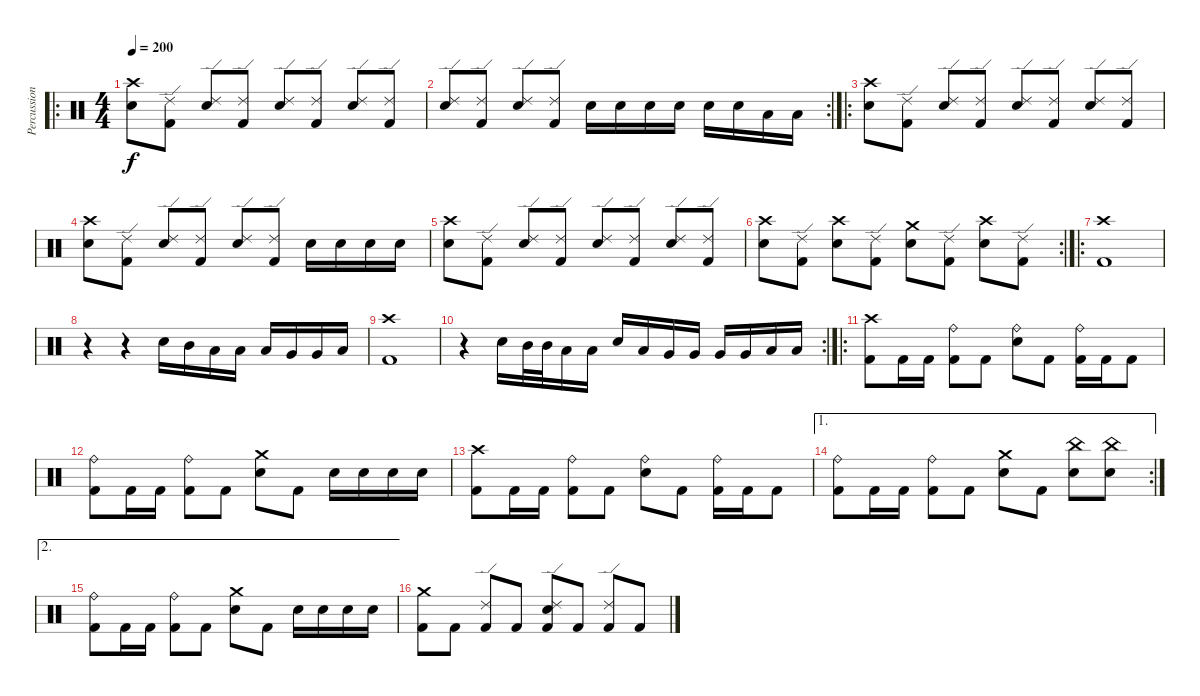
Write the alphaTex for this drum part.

\track ("Percussions" "Percussion") {instrument percussion}
\staff {score}
\articulation defaults
\ro
\ts (4 4)
\tempo 200
\clef neutral
\ks c
("Crash high (hit)" "Snare (hit) 2").8{dy f} ("Ride (edge) 2" "Kick (hit) 2").8 ("Ride (edge) 2" "Snare (hit) 2").8 ("Ride (edge) 2" "Kick (hit) 2").8 ("Ride (edge) 2" "Snare (hit) 2").8 ("Ride (edge) 2" "Kick (hit) 2").8 ("Ride (edge) 2" "Snare (hit) 2").8 ("Ride (edge) 2" "Kick (hit) 2").8 |
\rc 2
("Ride (edge) 2" "Snare (hit) 2").8 ("Ride (edge) 2" "Kick (hit) 2").8 ("Ride (edge) 2" "Snare (hit) 2").8 ("Ride (edge) 2" "Kick (hit) 2").8 "Snare (hit) 2".16 "Snare (hit) 2".16 "Snare (hit) 2".16 "Snare (hit) 2".16 "Snare (hit) 2".16 "Snare (hit) 2".16 "Low Tom (hit)".16 "Low Floor Tom (hit)".16 |
\ro
("Crash high (hit)" "Snare (hit) 2").8 ("Ride (edge) 2" "Kick (hit) 2").8 ("Ride (edge) 2" "Snare (hit) 2").8 ("Ride (edge) 2" "Kick (hit) 2").8 ("Ride (edge) 2" "Snare (hit) 2").8 ("Ride (edge) 2" "Kick (hit) 2").8 ("Ride (edge) 2" "Snare (hit) 2").8 ("Ride (edge) 2" "Kick (hit) 2").8 |
("Crash high (hit)" "Snare (hit) 2").8 ("Ride (edge) 2" "Kick (hit) 2").8 ("Ride (edge) 2" "Snare (hit) 2").8 ("Ride (edge) 2" "Kick (hit) 2").8 ("Ride (edge) 2" "Snare (hit) 2").8 ("Ride (edge) 2" "Kick (hit) 2").8 "Snare (hit) 2".16 "Snare (hit) 2".16 "Snare (hit) 2".16 "Snare (hit) 2".16 |
("Crash high (hit)" "Snare (hit) 2").8 ("Ride (edge) 2" "Kick (hit) 2").8 ("Ride (edge) 2" "Snare (hit) 2").8 ("Ride (edge) 2" "Kick (hit) 2").8 ("Ride (edge) 2" "Snare (hit) 2").8 ("Ride (edge) 2" "Kick (hit) 2").8 ("Ride (edge) 2" "Snare (hit) 2").8 ("Ride (edge) 2" "Kick (hit) 2").8 |
\rc 2
("Crash high (hit)" "Snare (hit) 2").8 ("Ride (edge) 2" "Kick (hit) 2").8 ("Crash high (hit)" "Snare (hit) 2").8 ("Ride (edge) 2" "Kick (hit) 2").8 ("Crash medium (hit)" "Snare (hit) 2").8 ("Ride (edge) 2" "Kick (hit) 2").8 ("Crash high (hit)" "Snare (hit) 2").8 ("Ride (edge) 2" "Kick (hit) 2").8 |
\ro
("Crash high (hit)" "Kick (hit) 2").1 |
r.4 r.4 "Snare (hit) 2".16 "Mid Tom (hit)".16 "Low Tom (hit)".16 "Low Tom (hit)".16 "Low Tom (hit)".16 "Very Low Tom (hit)".16 "Very Low Tom (hit)".16 "Low Floor Tom (hit)".16 |
("Crash high (hit)" "Kick (hit) 2").1 |
\rc 2
r.4 "Snare (hit) 2".16 "Mid Tom (hit)".32 "Mid Tom (hit)".32 "Low Tom (hit)".16 "Low Tom (hit)".16 "Snare (hit) 2".16 "Low Tom (hit)".16 "Very Low Tom (hit)".16 "Very Low Tom (hit)".16 "Very Low Tom (hit)".16 "Very Low Tom (hit)".16 "Low Floor Tom (hit)".16 "Low Floor Tom (hit)".16 |
\ro
("Crash high (hit)" "Kick (hit) 2").8 "Kick (hit) 2".16 "Kick (hit) 2".16 ("Ride (bell)" "Kick (hit) 2").8 "Kick (hit) 2".8 ("Ride (bell)" "Snare (hit) 2").8 "Kick (hit) 2".8 ("Ride (bell)" "Kick (hit) 2").16 "Kick (hit) 2".16 "Kick (hit) 2".8 |
("Ride (bell)" "Kick (hit) 2").8 "Kick (hit) 2".16 "Kick (hit) 2".16 ("Ride (bell)" "Kick (hit) 2").8 "Kick (hit) 2".8 ("Crash medium (hit)" "Snare (hit) 2").8 "Kick (hit) 2".8 "Snare (hit) 2".16 "Snare (hit) 2".16 "Snare (hit) 2".16 "Snare (hit) 2".16 |
("Crash high (hit)" "Kick (hit) 2").8 "Kick (hit) 2".16 "Kick (hit) 2".16 ("Ride (bell)" "Kick (hit) 2").8 "Kick (hit) 2".8 ("Ride (bell)" "Snare (hit) 2").8 "Kick (hit) 2".8 ("Ride (bell)" "Kick (hit) 2").16 "Kick (hit) 2".16 "Kick (hit) 2".8 |
\ae 1
\rc 2
("Ride (bell)" "Kick (hit) 2").8 "Kick (hit) 2".16 "Kick (hit) 2".16 ("Ride (bell)" "Kick (hit) 2").8 "Kick (hit) 2".8 ("Crash medium (hit)" "Snare (hit) 2").8 "Kick (hit) 2".8 ("China (hit)" "Snare (hit) 2").8 ("China (hit)" "Snare (hit) 2").8 |
\ae 2
("Ride (bell)" "Kick (hit) 2").8 "Kick (hit) 2".16 "Kick (hit) 2".16 ("Ride (bell)" "Kick (hit) 2").8 "Kick (hit) 2".8 ("Crash medium (hit)" "Snare (hit) 2").8 "Kick (hit) 2".8 "Snare (hit) 2".16 "Snare (hit) 2".16 "Snare (hit) 2".16 "Snare (hit) 2".16 |
("Crash medium (hit)" "Kick (hit) 2").8 "Kick (hit) 2".8 ("Ride (edge) 2" "Kick (hit) 2").8 "Kick (hit) 2".8 ("Ride (edge) 2" "Snare (hit) 2" "Kick (hit) 2").8 "Kick (hit) 2".8 ("Ride (edge) 2" "Kick (hit) 2").8 "Kick (hit) 2".8
